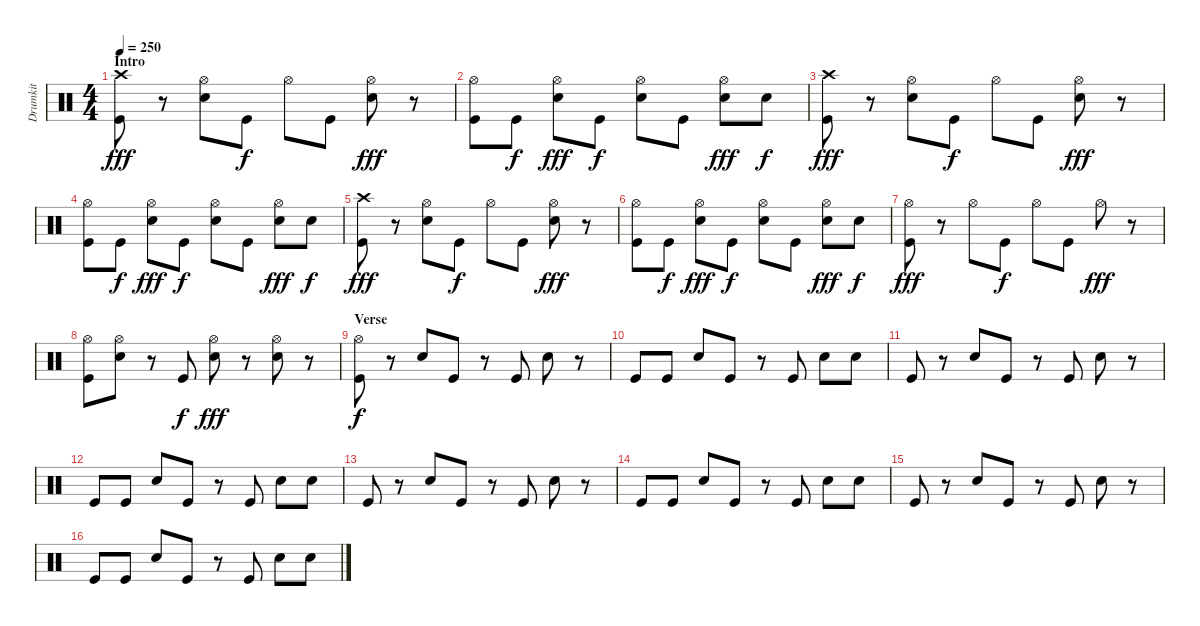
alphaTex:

\track ("Drumkit" "Drumkit") {instrument percussion}
\staff {score}
\articulation defaults
\ts (4 4)
\section ("" "Intro")
\tempo 250
\clef neutral
\ks c
("Crash high (hit)" "Kick (hit)").8{dy fff} r.8 ("Hi-Hat (open)" "Snare (hit) 2").8 "Kick (hit)".8{dy f} "Hi-Hat (open)".8 "Kick (hit)".8 ("Hi-Hat (open)" "Snare (hit) 2").8{dy fff} r.8 |
("Hi-Hat (open)" "Kick (hit)").8 "Kick (hit)".8{dy f} ("Hi-Hat (open)" "Snare (hit) 2").8{dy fff} "Kick (hit)".8{dy f} ("Hi-Hat (open)" "Snare (hit) 2").8 "Kick (hit)".8 ("Hi-Hat (open)" "Snare (hit) 2").8{dy fff} "Snare (hit) 2".8{dy f} |
("Crash high (hit)" "Kick (hit)").8{dy fff} r.8 ("Hi-Hat (open)" "Snare (hit) 2").8 "Kick (hit)".8{dy f} "Hi-Hat (open)".8 "Kick (hit)".8 ("Hi-Hat (open)" "Snare (hit) 2").8{dy fff} r.8 |
("Hi-Hat (open)" "Kick (hit)").8 "Kick (hit)".8{dy f} ("Hi-Hat (open)" "Snare (hit) 2").8{dy fff} "Kick (hit)".8{dy f} ("Hi-Hat (open)" "Snare (hit) 2").8 "Kick (hit)".8 ("Hi-Hat (open)" "Snare (hit) 2").8{dy fff} "Snare (hit) 2".8{dy f} |
("Crash high (hit)" "Kick (hit)").8{dy fff} r.8 ("Hi-Hat (open)" "Snare (hit) 2").8 "Kick (hit)".8{dy f} "Hi-Hat (open)".8 "Kick (hit)".8 ("Hi-Hat (open)" "Snare (hit) 2").8{dy fff} r.8 |
("Hi-Hat (open)" "Kick (hit)").8 "Kick (hit)".8{dy f} ("Hi-Hat (open)" "Snare (hit) 2").8{dy fff} "Kick (hit)".8{dy f} ("Hi-Hat (open)" "Snare (hit) 2").8 "Kick (hit)".8 ("Hi-Hat (open)" "Snare (hit) 2").8{dy fff} "Snare (hit) 2".8{dy f} |
("Hi-Hat (open)" "Kick (hit)").8{dy fff} r.8 "Hi-Hat (open)".8 "Kick (hit)".8{dy f} "Hi-Hat (open)".8 "Kick (hit)".8 "Hi-Hat (open)".8{dy fff} r.8 |
("Hi-Hat (open)" "Kick (hit)").8 ("Hi-Hat (open)" "Snare (hit) 2").8 r.8 "Kick (hit)".8{dy f} ("Hi-Hat (open)" "Snare (hit) 2").8{dy fff} r.8 ("Hi-Hat (open)" "Snare (hit) 2").8 r.8 |
\section ("" "Verse")
("Hi-Hat (open)" "Kick (hit)").8{dy f} r.8 "Snare (hit) 2".8 "Kick (hit)".8 r.8 "Kick (hit)".8 "Snare (hit) 2".8 r.8 |
"Kick (hit)".8 "Kick (hit)".8 "Snare (hit) 2".8 "Kick (hit)".8 r.8 "Kick (hit)".8 "Snare (hit) 2".8 "Snare (hit) 2".8 |
"Kick (hit)".8 r.8 "Snare (hit) 2".8 "Kick (hit)".8 r.8 "Kick (hit)".8 "Snare (hit) 2".8 r.8 |
"Kick (hit)".8 "Kick (hit)".8 "Snare (hit) 2".8 "Kick (hit)".8 r.8 "Kick (hit)".8 "Snare (hit) 2".8 "Snare (hit) 2".8 |
"Kick (hit)".8 r.8 "Snare (hit) 2".8 "Kick (hit)".8 r.8 "Kick (hit)".8 "Snare (hit) 2".8 r.8 |
"Kick (hit)".8 "Kick (hit)".8 "Snare (hit) 2".8 "Kick (hit)".8 r.8 "Kick (hit)".8 "Snare (hit) 2".8 "Snare (hit) 2".8 |
"Kick (hit)".8 r.8 "Snare (hit) 2".8 "Kick (hit)".8 r.8 "Kick (hit)".8 "Snare (hit) 2".8 r.8 |
"Kick (hit)".8 "Kick (hit)".8 "Snare (hit) 2".8 "Kick (hit)".8 r.8 "Kick (hit)".8 "Snare (hit) 2".8 "Snare (hit) 2".8
